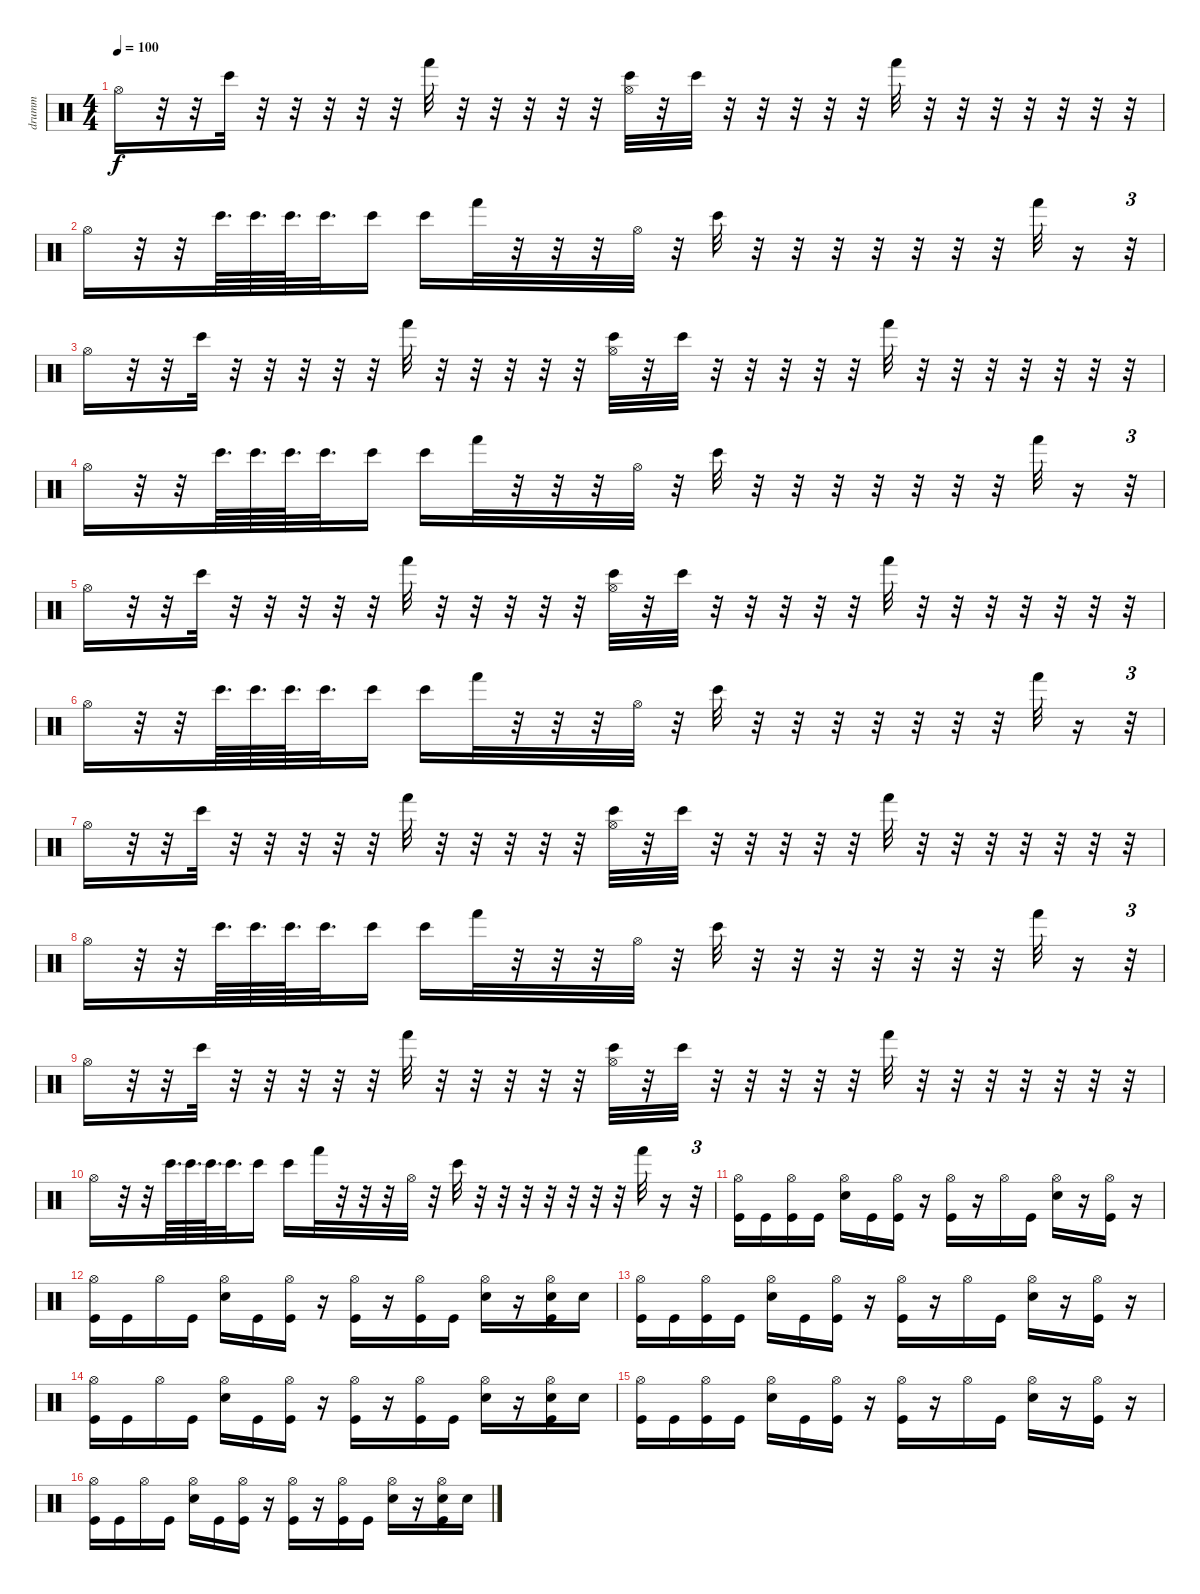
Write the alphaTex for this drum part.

\track ("drumm" "drumm") {instrument percussion}
\staff {score}
\articulation defaults
\ts (4 4)
\tempo 100
\clef neutral
\ks c "Hi-Hat (open)".16{dy f}
r.32 r.32 "Bongo High (hit)".32 r.32 r.32 r.32 r.32 r.32 "Hand (hit)".32 r.32 r.32 r.32 r.32 r.32 ("Hi-Hat (open)" "Bongo High (hit)").32 r.32 "Bongo High (hit)".32 r.32 r.32 r.32 r.32 r.32 "Hand (hit)".32 r.32 r.32 r.32 r.32 r.32 r.32 r.32 |
"Hi-Hat (open)".16 r.32 r.32 "Bongo High (hit)".64{d} "Bongo High (hit)".64{d} "Bongo High (hit)".64{d} "Bongo High (hit)".32{d} "Bongo High (hit)".16 "Bongo High (hit)".16 "Hand (hit)".32 r.32 r.32 r.32 "Hi-Hat (open)".32 r.32 "Bongo High (hit)".32 r.32 r.32 r.32 r.32 r.32 r.32 r.32 "Hand (hit)".32 r.16 r.32{tu (3 2)} |
"Hi-Hat (open)".16 r.32 r.32 "Bongo High (hit)".32 r.32 r.32 r.32 r.32 r.32 "Hand (hit)".32 r.32 r.32 r.32 r.32 r.32 ("Hi-Hat (open)" "Bongo High (hit)").32 r.32 "Bongo High (hit)".32 r.32 r.32 r.32 r.32 r.32 "Hand (hit)".32 r.32 r.32 r.32 r.32 r.32 r.32 r.32 |
"Hi-Hat (open)".16 r.32 r.32 "Bongo High (hit)".64{d} "Bongo High (hit)".64{d} "Bongo High (hit)".64{d} "Bongo High (hit)".32{d} "Bongo High (hit)".16 "Bongo High (hit)".16 "Hand (hit)".32 r.32 r.32 r.32 "Hi-Hat (open)".32 r.32 "Bongo High (hit)".32 r.32 r.32 r.32 r.32 r.32 r.32 r.32 "Hand (hit)".32 r.16 r.32{tu (3 2)} |
"Hi-Hat (open)".16 r.32 r.32 "Bongo High (hit)".32 r.32 r.32 r.32 r.32 r.32 "Hand (hit)".32 r.32 r.32 r.32 r.32 r.32 ("Hi-Hat (open)" "Bongo High (hit)").32 r.32 "Bongo High (hit)".32 r.32 r.32 r.32 r.32 r.32 "Hand (hit)".32 r.32 r.32 r.32 r.32 r.32 r.32 r.32 |
"Hi-Hat (open)".16 r.32 r.32 "Bongo High (hit)".64{d} "Bongo High (hit)".64{d} "Bongo High (hit)".64{d} "Bongo High (hit)".32{d} "Bongo High (hit)".16 "Bongo High (hit)".16 "Hand (hit)".32 r.32 r.32 r.32 "Hi-Hat (open)".32 r.32 "Bongo High (hit)".32 r.32 r.32 r.32 r.32 r.32 r.32 r.32 "Hand (hit)".32 r.16 r.32{tu (3 2)} |
"Hi-Hat (open)".16 r.32 r.32 "Bongo High (hit)".32 r.32 r.32 r.32 r.32 r.32 "Hand (hit)".32 r.32 r.32 r.32 r.32 r.32 ("Hi-Hat (open)" "Bongo High (hit)").32 r.32 "Bongo High (hit)".32 r.32 r.32 r.32 r.32 r.32 "Hand (hit)".32 r.32 r.32 r.32 r.32 r.32 r.32 r.32 |
"Hi-Hat (open)".16 r.32 r.32 "Bongo High (hit)".64{d} "Bongo High (hit)".64{d} "Bongo High (hit)".64{d} "Bongo High (hit)".32{d} "Bongo High (hit)".16 "Bongo High (hit)".16 "Hand (hit)".32 r.32 r.32 r.32 "Hi-Hat (open)".32 r.32 "Bongo High (hit)".32 r.32 r.32 r.32 r.32 r.32 r.32 r.32 "Hand (hit)".32 r.16 r.32{tu (3 2)} |
"Hi-Hat (open)".16 r.32 r.32 "Bongo High (hit)".32 r.32 r.32 r.32 r.32 r.32 "Hand (hit)".32 r.32 r.32 r.32 r.32 r.32 ("Hi-Hat (open)" "Bongo High (hit)").32 r.32 "Bongo High (hit)".32 r.32 r.32 r.32 r.32 r.32 "Hand (hit)".32 r.32 r.32 r.32 r.32 r.32 r.32 r.32 |
"Hi-Hat (open)".16 r.32 r.32 "Bongo High (hit)".64{d} "Bongo High (hit)".64{d} "Bongo High (hit)".64{d} "Bongo High (hit)".32{d} "Bongo High (hit)".16 "Bongo High (hit)".16 "Hand (hit)".32 r.32 r.32 r.32 "Hi-Hat (open)".32 r.32 "Bongo High (hit)".32 r.32 r.32 r.32 r.32 r.32 r.32 r.32 "Hand (hit)".32 r.16 r.32{tu (3 2)} |
("Hi-Hat (open)" "Kick (hit)").16 "Kick (hit)".16 ("Hi-Hat (open)" "Kick (hit)").16 "Kick (hit)".16 ("Hi-Hat (open)" "Electric Snare (hit)").16 "Kick (hit)".16 ("Hi-Hat (open)" "Kick (hit)").16 r.16 ("Hi-Hat (open)" "Kick (hit)").16 r.16 "Hi-Hat (open)".16 "Kick (hit)".16 ("Hi-Hat (open)" "Electric Snare (hit)").16 r.16 ("Hi-Hat (open)" "Kick (hit)").16 r.16 |
("Hi-Hat (open)" "Kick (hit)").16 "Kick (hit)".16 "Hi-Hat (open)".16 "Kick (hit)".16 ("Hi-Hat (open)" "Electric Snare (hit)").16 "Kick (hit)".16 ("Hi-Hat (open)" "Kick (hit)").16 r.16 ("Hi-Hat (open)" "Kick (hit)").16 r.16 ("Hi-Hat (open)" "Kick (hit)").16 "Kick (hit)".16 ("Hi-Hat (open)" "Electric Snare (hit)").16 r.16 ("Hi-Hat (open)" "Electric Snare (hit)" "Kick (hit)").16 "Electric Snare (hit)".16 |
("Hi-Hat (open)" "Kick (hit)").16 "Kick (hit)".16 ("Hi-Hat (open)" "Kick (hit)").16 "Kick (hit)".16 ("Hi-Hat (open)" "Electric Snare (hit)").16 "Kick (hit)".16 ("Hi-Hat (open)" "Kick (hit)").16 r.16 ("Hi-Hat (open)" "Kick (hit)").16 r.16 "Hi-Hat (open)".16 "Kick (hit)".16 ("Hi-Hat (open)" "Electric Snare (hit)").16 r.16 ("Hi-Hat (open)" "Kick (hit)").16 r.16 |
("Hi-Hat (open)" "Kick (hit)").16 "Kick (hit)".16 "Hi-Hat (open)".16 "Kick (hit)".16 ("Hi-Hat (open)" "Electric Snare (hit)").16 "Kick (hit)".16 ("Hi-Hat (open)" "Kick (hit)").16 r.16 ("Hi-Hat (open)" "Kick (hit)").16 r.16 ("Hi-Hat (open)" "Kick (hit)").16 "Kick (hit)".16 ("Hi-Hat (open)" "Electric Snare (hit)").16 r.16 ("Hi-Hat (open)" "Electric Snare (hit)" "Kick (hit)").16 "Electric Snare (hit)".16 |
("Hi-Hat (open)" "Kick (hit)").16 "Kick (hit)".16 ("Hi-Hat (open)" "Kick (hit)").16 "Kick (hit)".16 ("Hi-Hat (open)" "Electric Snare (hit)").16 "Kick (hit)".16 ("Hi-Hat (open)" "Kick (hit)").16 r.16 ("Hi-Hat (open)" "Kick (hit)").16 r.16 "Hi-Hat (open)".16 "Kick (hit)".16 ("Hi-Hat (open)" "Electric Snare (hit)").16 r.16 ("Hi-Hat (open)" "Kick (hit)").16 r.16 |
("Hi-Hat (open)" "Kick (hit)").16 "Kick (hit)".16 "Hi-Hat (open)".16 "Kick (hit)".16 ("Hi-Hat (open)" "Electric Snare (hit)").16 "Kick (hit)".16 ("Hi-Hat (open)" "Kick (hit)").16 r.16 ("Hi-Hat (open)" "Kick (hit)").16 r.16 ("Hi-Hat (open)" "Kick (hit)").16 "Kick (hit)".16 ("Hi-Hat (open)" "Electric Snare (hit)").16 r.16 ("Hi-Hat (open)" "Electric Snare (hit)" "Kick (hit)").16 "Electric Snare (hit)".16
